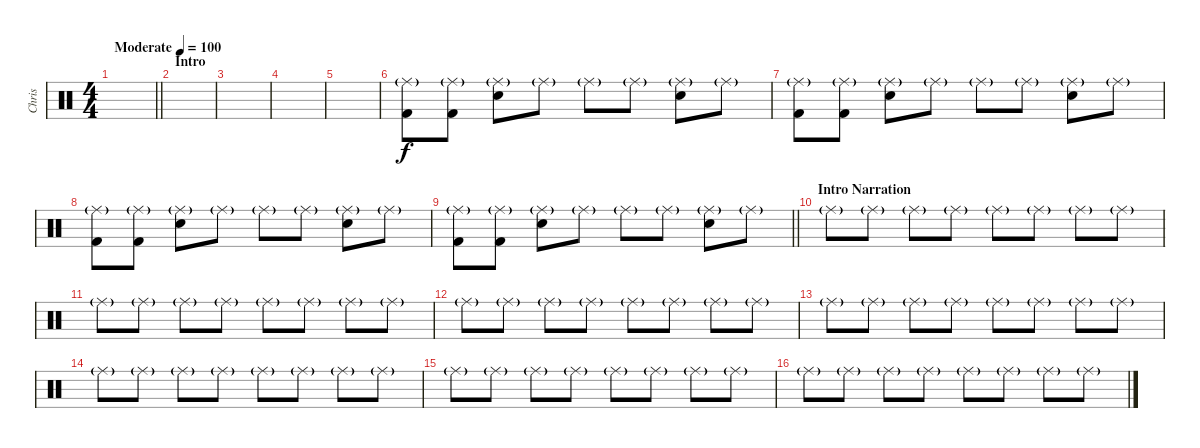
\track ("Chris" "Chris") {instrument percussion}
\staff {score}
\articulation defaults
\ts (4 4)
\tempo (100 "Moderate")
\clef neutral
\barLineRight lightlight
\ks c
|
\section ("" "Intro")
|
|
|
|
("Ride (middle)"{g} "Kick (hit) 2").8 ("Ride (middle)"{g} "Kick (hit) 2").8 ("Ride (middle)"{g} "Snare (hit) 2").8 "Ride (middle)"{g}.8 "Ride (middle)"{g}.8 "Ride (middle)"{g}.8 ("Ride (middle)"{g} "Snare (hit) 2").8 "Ride (middle)"{g}.8 |
("Ride (middle)"{g} "Kick (hit) 2").8 ("Ride (middle)"{g} "Kick (hit) 2").8 ("Ride (middle)"{g} "Snare (hit) 2").8 "Ride (middle)"{g}.8 "Ride (middle)"{g}.8 "Ride (middle)"{g}.8 ("Ride (middle)"{g} "Snare (hit) 2").8 "Ride (middle)"{g}.8 |
("Ride (middle)"{g} "Kick (hit) 2").8 ("Ride (middle)"{g} "Kick (hit) 2").8 ("Ride (middle)"{g} "Snare (hit) 2").8 "Ride (middle)"{g}.8 "Ride (middle)"{g}.8 "Ride (middle)"{g}.8 ("Ride (middle)"{g} "Snare (hit) 2").8 "Ride (middle)"{g}.8 |
\barLineRight lightlight
("Ride (middle)"{g} "Kick (hit) 2").8 ("Ride (middle)"{g} "Kick (hit) 2").8 ("Ride (middle)"{g} "Snare (hit) 2").8 "Ride (middle)"{g}.8 "Ride (middle)"{g}.8 "Ride (middle)"{g}.8 ("Ride (middle)"{g} "Snare (hit) 2").8 "Ride (middle)"{g}.8 |
\section ("" "Intro Narration")
"Ride (middle)"{g}.8 "Ride (middle)"{g}.8 "Ride (middle)"{g}.8 "Ride (middle)"{g}.8 "Ride (middle)"{g}.8 "Ride (middle)"{g}.8 "Ride (middle)"{g}.8 "Ride (middle)"{g}.8 |
"Ride (middle)"{g}.8 "Ride (middle)"{g}.8 "Ride (middle)"{g}.8 "Ride (middle)"{g}.8 "Ride (middle)"{g}.8 "Ride (middle)"{g}.8 "Ride (middle)"{g}.8 "Ride (middle)"{g}.8 |
"Ride (middle)"{g}.8 "Ride (middle)"{g}.8 "Ride (middle)"{g}.8 "Ride (middle)"{g}.8 "Ride (middle)"{g}.8 "Ride (middle)"{g}.8 "Ride (middle)"{g}.8 "Ride (middle)"{g}.8 |
"Ride (middle)"{g}.8 "Ride (middle)"{g}.8 "Ride (middle)"{g}.8 "Ride (middle)"{g}.8 "Ride (middle)"{g}.8 "Ride (middle)"{g}.8 "Ride (middle)"{g}.8 "Ride (middle)"{g}.8 |
"Ride (middle)"{g}.8 "Ride (middle)"{g}.8 "Ride (middle)"{g}.8 "Ride (middle)"{g}.8 "Ride (middle)"{g}.8 "Ride (middle)"{g}.8 "Ride (middle)"{g}.8 "Ride (middle)"{g}.8 |
"Ride (middle)"{g}.8 "Ride (middle)"{g}.8 "Ride (middle)"{g}.8 "Ride (middle)"{g}.8 "Ride (middle)"{g}.8 "Ride (middle)"{g}.8 "Ride (middle)"{g}.8 "Ride (middle)"{g}.8 |
"Ride (middle)"{g}.8 "Ride (middle)"{g}.8 "Ride (middle)"{g}.8 "Ride (middle)"{g}.8 "Ride (middle)"{g}.8 "Ride (middle)"{g}.8 "Ride (middle)"{g}.8 "Ride (middle)"{g}.8
